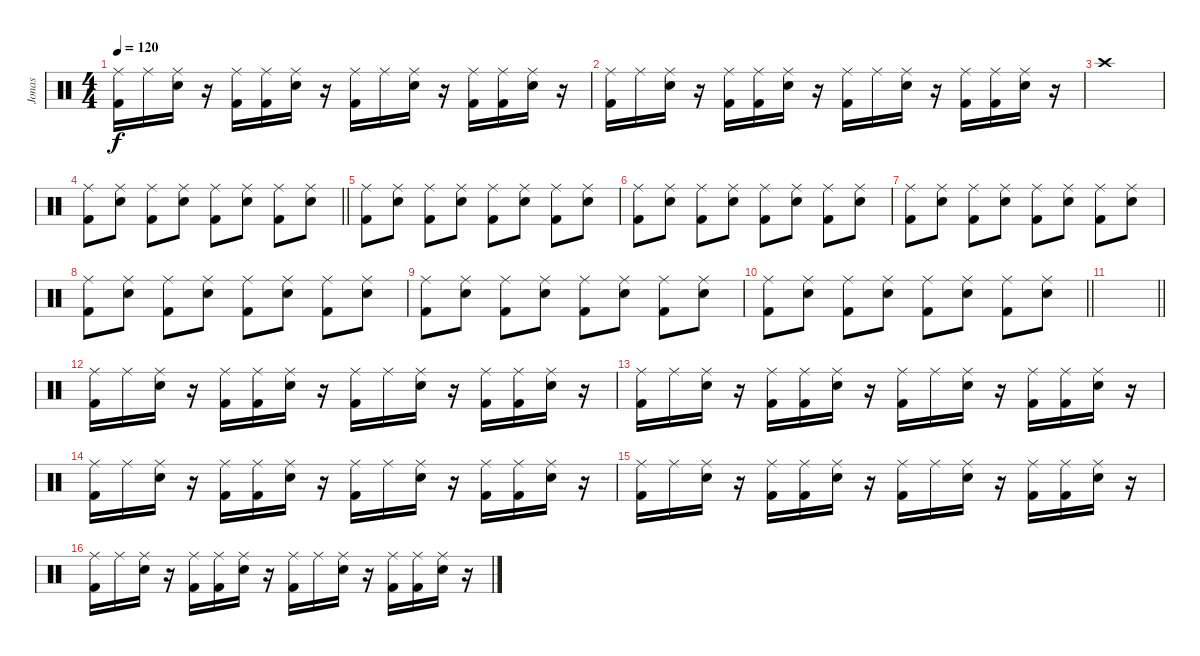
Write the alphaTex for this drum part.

\track ("Jonas" "Jonas") {instrument percussion}
\staff {score}
\articulation defaults
\ts (4 4)
\tempo 120
\clef neutral
\ks c
("Ride (middle)" "Kick (hit) 2").16{dy f} "Ride (middle)".16 ("Ride (middle)" "Snare (hit) 2").16 r.16 ("Ride (middle)" "Kick (hit) 2").16 ("Ride (middle)" "Kick (hit) 2").16 ("Ride (middle)" "Snare (hit) 2").16 r.16 ("Ride (middle)" "Kick (hit) 2").16 "Ride (middle)".16 ("Ride (middle)" "Snare (hit) 2").16 r.16 ("Ride (middle)" "Kick (hit) 2").16 ("Ride (middle)" "Kick (hit) 2").16 ("Ride (middle)" "Snare (hit) 2").16 r.16 |
("Ride (middle)" "Kick (hit) 2").16 "Ride (middle)".16 ("Ride (middle)" "Snare (hit) 2").16 r.16 ("Ride (middle)" "Kick (hit) 2").16 ("Ride (middle)" "Kick (hit) 2").16 ("Ride (middle)" "Snare (hit) 2").16 r.16 ("Ride (middle)" "Kick (hit) 2").16 "Ride (middle)".16 ("Ride (middle)" "Snare (hit) 2").16 r.16 ("Ride (middle)" "Kick (hit) 2").16 ("Ride (middle)" "Kick (hit) 2").16 ("Ride (middle)" "Snare (hit) 2").16 r.16 |
"Crash high (hit)".1 |
\barLineRight lightlight
("Ride (middle)" "Kick (hit) 2").8 ("Ride (middle)" "Snare (hit) 2").8 ("Ride (middle)" "Kick (hit) 2").8 ("Ride (middle)" "Snare (hit) 2").8 ("Ride (middle)" "Kick (hit) 2").8 ("Ride (middle)" "Snare (hit) 2").8 ("Ride (middle)" "Kick (hit) 2").8 ("Ride (middle)" "Snare (hit) 2").8 |
("Ride (middle)" "Kick (hit) 2").8 ("Ride (middle)" "Snare (hit) 2").8 ("Ride (middle)" "Kick (hit) 2").8 ("Ride (middle)" "Snare (hit) 2").8 ("Ride (middle)" "Kick (hit) 2").8 ("Ride (middle)" "Snare (hit) 2").8 ("Ride (middle)" "Kick (hit) 2").8 ("Ride (middle)" "Snare (hit) 2").8 |
("Ride (middle)" "Kick (hit) 2").8 ("Ride (middle)" "Snare (hit) 2").8 ("Ride (middle)" "Kick (hit) 2").8 ("Ride (middle)" "Snare (hit) 2").8 ("Ride (middle)" "Kick (hit) 2").8 ("Ride (middle)" "Snare (hit) 2").8 ("Ride (middle)" "Kick (hit) 2").8 ("Ride (middle)" "Snare (hit) 2").8 |
("Ride (middle)" "Kick (hit) 2").8 ("Ride (middle)" "Snare (hit) 2").8 ("Ride (middle)" "Kick (hit) 2").8 ("Ride (middle)" "Snare (hit) 2").8 ("Ride (middle)" "Kick (hit) 2").8 ("Ride (middle)" "Snare (hit) 2").8 ("Ride (middle)" "Kick (hit) 2").8 ("Ride (middle)" "Snare (hit) 2").8 |
("Ride (middle)" "Kick (hit) 2").8 ("Ride (middle)" "Snare (hit) 2").8 ("Ride (middle)" "Kick (hit) 2").8 ("Ride (middle)" "Snare (hit) 2").8 ("Ride (middle)" "Kick (hit) 2").8 ("Ride (middle)" "Snare (hit) 2").8 ("Ride (middle)" "Kick (hit) 2").8 ("Ride (middle)" "Snare (hit) 2").8 |
("Ride (middle)" "Kick (hit) 2").8 ("Ride (middle)" "Snare (hit) 2").8 ("Ride (middle)" "Kick (hit) 2").8 ("Ride (middle)" "Snare (hit) 2").8 ("Ride (middle)" "Kick (hit) 2").8 ("Ride (middle)" "Snare (hit) 2").8 ("Ride (middle)" "Kick (hit) 2").8 ("Ride (middle)" "Snare (hit) 2").8 |
\barLineRight lightlight
("Ride (middle)" "Kick (hit) 2").8 ("Ride (middle)" "Snare (hit) 2").8 ("Ride (middle)" "Kick (hit) 2").8 ("Ride (middle)" "Snare (hit) 2").8 ("Ride (middle)" "Kick (hit) 2").8 ("Ride (middle)" "Snare (hit) 2").8 ("Ride (middle)" "Kick (hit) 2").8 ("Ride (middle)" "Snare (hit) 2").8 |
\barLineRight lightlight
|
("Ride (middle)" "Kick (hit) 2").16 "Ride (middle)".16 ("Ride (middle)" "Snare (hit) 2").16 r.16 ("Ride (middle)" "Kick (hit) 2").16 ("Ride (middle)" "Kick (hit) 2").16 ("Ride (middle)" "Snare (hit) 2").16 r.16 ("Ride (middle)" "Kick (hit) 2").16 "Ride (middle)".16 ("Ride (middle)" "Snare (hit) 2").16 r.16 ("Ride (middle)" "Kick (hit) 2").16 ("Ride (middle)" "Kick (hit) 2").16 ("Ride (middle)" "Snare (hit) 2").16 r.16 |
("Ride (middle)" "Kick (hit) 2").16 "Ride (middle)".16 ("Ride (middle)" "Snare (hit) 2").16 r.16 ("Ride (middle)" "Kick (hit) 2").16 ("Ride (middle)" "Kick (hit) 2").16 ("Ride (middle)" "Snare (hit) 2").16 r.16 ("Ride (middle)" "Kick (hit) 2").16 "Ride (middle)".16 ("Ride (middle)" "Snare (hit) 2").16 r.16 ("Ride (middle)" "Kick (hit) 2").16 ("Ride (middle)" "Kick (hit) 2").16 ("Ride (middle)" "Snare (hit) 2").16 r.16 |
("Ride (middle)" "Kick (hit) 2").16 "Ride (middle)".16 ("Ride (middle)" "Snare (hit) 2").16 r.16 ("Ride (middle)" "Kick (hit) 2").16 ("Ride (middle)" "Kick (hit) 2").16 ("Ride (middle)" "Snare (hit) 2").16 r.16 ("Ride (middle)" "Kick (hit) 2").16 "Ride (middle)".16 ("Ride (middle)" "Snare (hit) 2").16 r.16 ("Ride (middle)" "Kick (hit) 2").16 ("Ride (middle)" "Kick (hit) 2").16 ("Ride (middle)" "Snare (hit) 2").16 r.16 |
("Ride (middle)" "Kick (hit) 2").16 "Ride (middle)".16 ("Ride (middle)" "Snare (hit) 2").16 r.16 ("Ride (middle)" "Kick (hit) 2").16 ("Ride (middle)" "Kick (hit) 2").16 ("Ride (middle)" "Snare (hit) 2").16 r.16 ("Ride (middle)" "Kick (hit) 2").16 "Ride (middle)".16 ("Ride (middle)" "Snare (hit) 2").16 r.16 ("Ride (middle)" "Kick (hit) 2").16 ("Ride (middle)" "Kick (hit) 2").16 ("Ride (middle)" "Snare (hit) 2").16 r.16 |
("Ride (middle)" "Kick (hit) 2").16 "Ride (middle)".16 ("Ride (middle)" "Snare (hit) 2").16 r.16 ("Ride (middle)" "Kick (hit) 2").16 ("Ride (middle)" "Kick (hit) 2").16 ("Ride (middle)" "Snare (hit) 2").16 r.16 ("Ride (middle)" "Kick (hit) 2").16 "Ride (middle)".16 ("Ride (middle)" "Snare (hit) 2").16 r.16 ("Ride (middle)" "Kick (hit) 2").16 ("Ride (middle)" "Kick (hit) 2").16 ("Ride (middle)" "Snare (hit) 2").16 r.16
